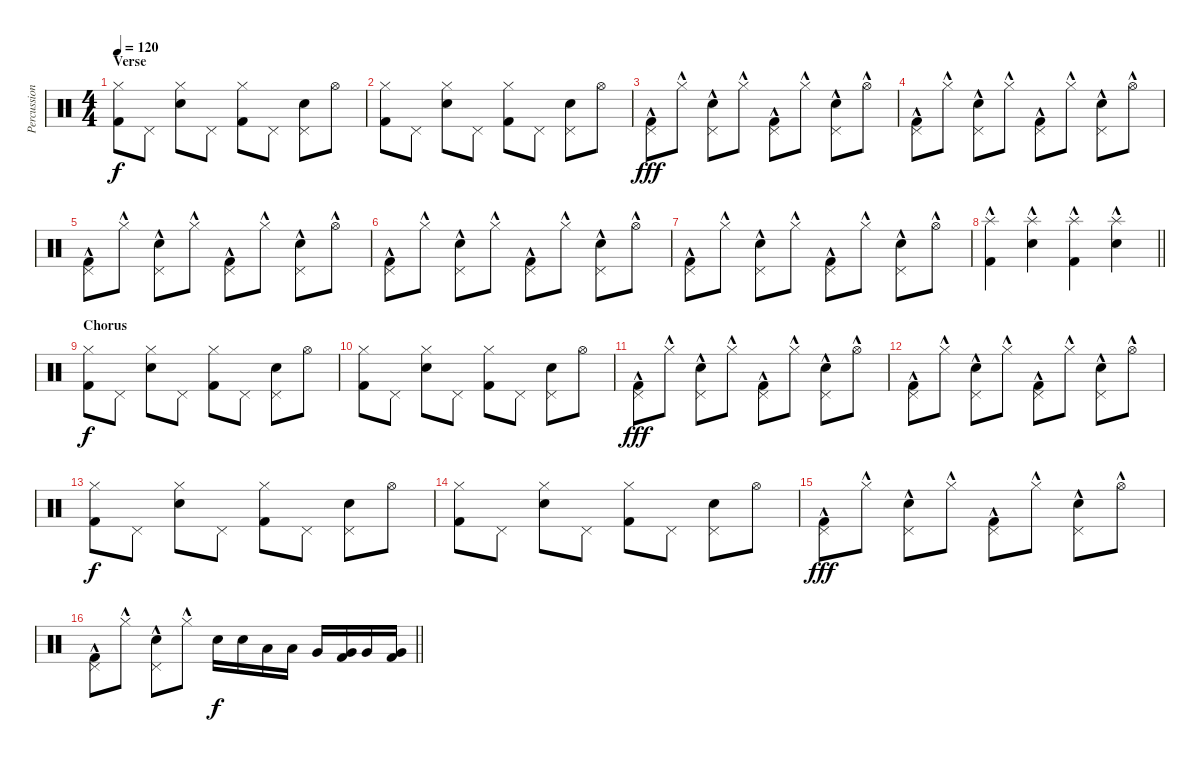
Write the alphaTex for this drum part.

\track ("Percussion" "Percussion") {instrument percussion}
\staff {score}
\articulation defaults
\ts (4 4)
\section ("" "Verse")
\tempo 120
\clef neutral
\ks c
("Hi-Hat (closed)" "Kick (hit) 2").8{dy f} "Pedal Hi-Hat (hit)".8 ("Hi-Hat (closed)" "Electric Snare (hit)").8 "Pedal Hi-Hat (hit)".8 ("Hi-Hat (closed)" "Kick (hit) 2").8 "Pedal Hi-Hat (hit)".8 ("Pedal Hi-Hat (hit)" "Electric Snare (hit)").8 "Hi-Hat (open)".8 |
("Hi-Hat (closed)" "Kick (hit) 2").8 "Pedal Hi-Hat (hit)".8 ("Hi-Hat (closed)" "Electric Snare (hit)").8 "Pedal Hi-Hat (hit)".8 ("Hi-Hat (closed)" "Kick (hit) 2").8 "Pedal Hi-Hat (hit)".8 ("Pedal Hi-Hat (hit)" "Electric Snare (hit)").8 "Hi-Hat (open)".8 |
("Pedal Hi-Hat (hit)" "Kick (hit) 2"{hac}).8{dy fff} "Hi-Hat (closed)"{hac}.8 ("Pedal Hi-Hat (hit)" "Electric Snare (hit)"{hac}).8 "Hi-Hat (closed)"{hac}.8 ("Pedal Hi-Hat (hit)" "Kick (hit) 2"{hac}).8 "Hi-Hat (closed)"{hac}.8 ("Pedal Hi-Hat (hit)" "Electric Snare (hit)"{hac}).8 "Hi-Hat (open)"{hac}.8 |
("Pedal Hi-Hat (hit)" "Kick (hit) 2"{hac}).8 "Hi-Hat (closed)"{hac}.8 ("Pedal Hi-Hat (hit)" "Electric Snare (hit)"{hac}).8 "Hi-Hat (closed)"{hac}.8 ("Pedal Hi-Hat (hit)" "Kick (hit) 2"{hac}).8 "Hi-Hat (closed)"{hac}.8 ("Pedal Hi-Hat (hit)" "Electric Snare (hit)"{hac}).8 "Hi-Hat (open)"{hac}.8 |
("Pedal Hi-Hat (hit)" "Kick (hit) 2"{hac}).8 "Hi-Hat (closed)"{hac}.8 ("Pedal Hi-Hat (hit)" "Electric Snare (hit)"{hac}).8 "Hi-Hat (closed)"{hac}.8 ("Pedal Hi-Hat (hit)" "Kick (hit) 2"{hac}).8 "Hi-Hat (closed)"{hac}.8 ("Pedal Hi-Hat (hit)" "Electric Snare (hit)"{hac}).8 "Hi-Hat (open)"{hac}.8 |
("Pedal Hi-Hat (hit)" "Kick (hit) 2"{hac}).8 "Hi-Hat (closed)"{hac}.8 ("Pedal Hi-Hat (hit)" "Electric Snare (hit)"{hac}).8 "Hi-Hat (closed)"{hac}.8 ("Pedal Hi-Hat (hit)" "Kick (hit) 2"{hac}).8 "Hi-Hat (closed)"{hac}.8 ("Pedal Hi-Hat (hit)" "Electric Snare (hit)"{hac}).8 "Hi-Hat (open)"{hac}.8 |
("Pedal Hi-Hat (hit)" "Kick (hit) 2"{hac}).8 "Hi-Hat (closed)"{hac}.8 ("Pedal Hi-Hat (hit)" "Electric Snare (hit)"{hac}).8 "Hi-Hat (closed)"{hac}.8 ("Pedal Hi-Hat (hit)" "Kick (hit) 2"{hac}).8 "Hi-Hat (closed)"{hac}.8 ("Pedal Hi-Hat (hit)" "Electric Snare (hit)"{hac}).8 "Hi-Hat (open)"{hac}.8 |
\barLineRight lightlight
("Splash (hit)" "Kick (hit) 2"{hac}).4 ("Splash (hit)" "Electric Snare (hit)"{hac}).4 ("Splash (hit)" "Kick (hit) 2"{hac}).4 ("Splash (hit)" "Electric Snare (hit)"{hac}).4 |
\section ("" "Chorus")
("Hi-Hat (closed)" "Kick (hit) 2").8{dy f} "Pedal Hi-Hat (hit)".8 ("Hi-Hat (closed)" "Electric Snare (hit)").8 "Pedal Hi-Hat (hit)".8 ("Hi-Hat (closed)" "Kick (hit) 2").8 "Pedal Hi-Hat (hit)".8 ("Pedal Hi-Hat (hit)" "Electric Snare (hit)").8 "Hi-Hat (open)".8 |
("Hi-Hat (closed)" "Kick (hit) 2").8 "Pedal Hi-Hat (hit)".8 ("Hi-Hat (closed)" "Electric Snare (hit)").8 "Pedal Hi-Hat (hit)".8 ("Hi-Hat (closed)" "Kick (hit) 2").8 "Pedal Hi-Hat (hit)".8 ("Pedal Hi-Hat (hit)" "Electric Snare (hit)").8 "Hi-Hat (open)".8 |
("Pedal Hi-Hat (hit)" "Kick (hit) 2"{hac}).8{dy fff} "Hi-Hat (closed)"{hac}.8 ("Pedal Hi-Hat (hit)" "Electric Snare (hit)"{hac}).8 "Hi-Hat (closed)"{hac}.8 ("Pedal Hi-Hat (hit)" "Kick (hit) 2"{hac}).8 "Hi-Hat (closed)"{hac}.8 ("Pedal Hi-Hat (hit)" "Electric Snare (hit)"{hac}).8 "Hi-Hat (open)"{hac}.8 |
("Pedal Hi-Hat (hit)" "Kick (hit) 2"{hac}).8 "Hi-Hat (closed)"{hac}.8 ("Pedal Hi-Hat (hit)" "Electric Snare (hit)"{hac}).8 "Hi-Hat (closed)"{hac}.8 ("Pedal Hi-Hat (hit)" "Kick (hit) 2"{hac}).8 "Hi-Hat (closed)"{hac}.8 ("Pedal Hi-Hat (hit)" "Electric Snare (hit)"{hac}).8 "Hi-Hat (open)"{hac}.8 |
("Hi-Hat (closed)" "Kick (hit) 2").8{dy f} "Pedal Hi-Hat (hit)".8 ("Hi-Hat (closed)" "Electric Snare (hit)").8 "Pedal Hi-Hat (hit)".8 ("Hi-Hat (closed)" "Kick (hit) 2").8 "Pedal Hi-Hat (hit)".8 ("Pedal Hi-Hat (hit)" "Electric Snare (hit)").8 "Hi-Hat (open)".8 |
("Hi-Hat (closed)" "Kick (hit) 2").8 "Pedal Hi-Hat (hit)".8 ("Hi-Hat (closed)" "Electric Snare (hit)").8 "Pedal Hi-Hat (hit)".8 ("Hi-Hat (closed)" "Kick (hit) 2").8 "Pedal Hi-Hat (hit)".8 ("Pedal Hi-Hat (hit)" "Electric Snare (hit)").8 "Hi-Hat (open)".8 |
("Pedal Hi-Hat (hit)" "Kick (hit) 2"{hac}).8{dy fff} "Hi-Hat (closed)"{hac}.8 ("Pedal Hi-Hat (hit)" "Electric Snare (hit)"{hac}).8 "Hi-Hat (closed)"{hac}.8 ("Pedal Hi-Hat (hit)" "Kick (hit) 2"{hac}).8 "Hi-Hat (closed)"{hac}.8 ("Pedal Hi-Hat (hit)" "Electric Snare (hit)"{hac}).8 "Hi-Hat (open)"{hac}.8 |
\barLineRight lightlight
("Pedal Hi-Hat (hit)" "Kick (hit) 2"{hac}).8 "Hi-Hat (closed)"{hac}.8 ("Pedal Hi-Hat (hit)" "Electric Snare (hit)"{hac}).8 "Hi-Hat (closed)"{hac}.8 "Electric Snare (hit)".16{dy f} "Electric Snare (hit)".16 "Low Tom (hit)".16 "Low Tom (hit)".16 "Very Low Tom (hit)".16 ("Very Low Tom (hit)" "Kick (hit) 2").16 "Very Low Tom (hit)".16 ("Very Low Tom (hit)" "Kick (hit) 2").16
